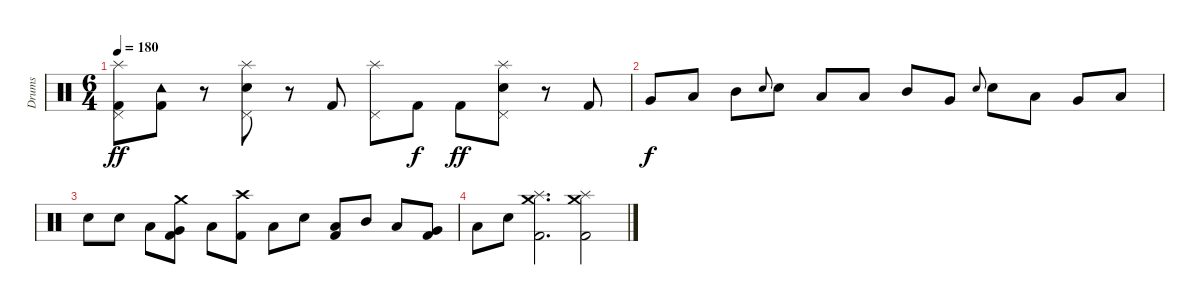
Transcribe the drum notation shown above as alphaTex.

\track ("Drums" "Drums") {instrument percussion}
\staff {score}
\articulation defaults
\ts (6 4)
\tempo 180
\clef neutral
\ks c
("Splash (hit)" "Pedal Hi-Hat (hit)" "Kick (hit) 2").8{dy ff} ("Tambourine (hit)" "Kick (hit) 2").8 r.8 ("Splash (hit)" "Pedal Hi-Hat (hit)" "Electric Snare (hit)").8 r.8 "Kick (hit) 2".8 ("Splash (hit)" "Pedal Hi-Hat (hit)").8 "Kick (hit) 2".8{dy f} "Kick (hit) 2".8{dy ff} ("Splash (hit)" "Pedal Hi-Hat (hit)" "Electric Snare (hit)").8 r.8 "Kick (hit) 2".8 |
\section ("" "")
"Very Low Tom (hit)".8{dy f} "Low Tom (hit)".8 "Mid Tom (hit)".8 "Electric Snare (hit)".8{gr onbeat} "Electric Snare (hit)".8 "Low Floor Tom (hit)".8 "Low Tom (hit)".8 "Mid Tom (hit)".8 "Very Low Tom (hit)".8 "Electric Snare (hit)".8{gr onbeat} "Electric Snare (hit)".8 "Low Tom (hit)".8 "Very Low Tom (hit)".8 "Low Floor Tom (hit)".8 |
"Electric Snare (hit)".8 "Electric Snare (hit)".8 "Low Tom (hit)".8 ("Crash medium (hit)" "Very Low Tom (hit)" "Kick (hit) 2").8 "Low Floor Tom (hit)".8 ("Crash high (hit)" "Kick (hit) 2").8 "Low Tom (hit)".8 "Electric Snare (hit)".8 ("Low Floor Tom (hit)" "Kick (hit) 2").8 "Mid Tom (hit)".8 "Low Tom (hit)".8 ("Very Low Tom (hit)" "Kick (hit) 2").8 |
"Low Floor Tom (hit)".8 "Electric Snare (hit)".8 ("Crash medium (hit)" "Splash (hit)" "Kick (hit) 2").2{d} ("Crash medium (hit)" "Splash (hit)" "Kick (hit) 2").2
